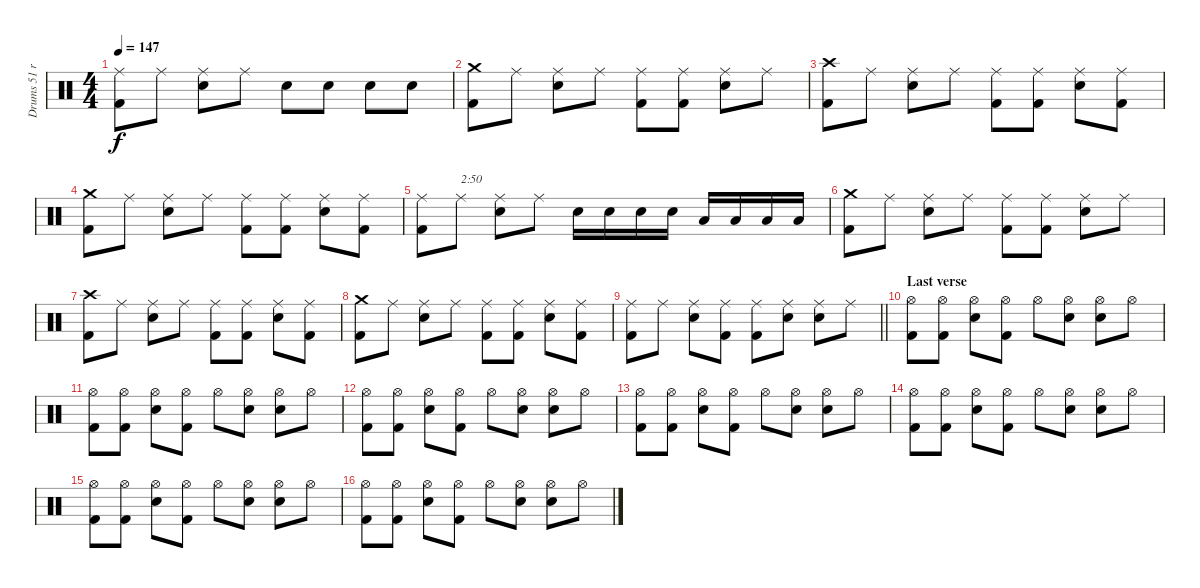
\track ("Drums 51 ride" "Drums 51 r") {mute instrument percussion}
\staff {score}
\articulation defaults
\ts (4 4)
\tempo 147
\clef neutral
\ks c
("Ride (middle)" "Kick (hit) 2").8{dy f} "Ride (middle)".8 ("Ride (middle)" "Snare (hit) 2").8 "Ride (middle)".8 "Snare (hit) 2".8 "Snare (hit) 2".8 "Snare (hit) 2".8 "Snare (hit) 2".8 |
("Crash medium (hit)" "Kick (hit) 2").8 "Ride (middle)".8 ("Ride (middle)" "Snare (hit) 2").8 "Ride (middle)".8 ("Ride (middle)" "Kick (hit) 2").8 ("Ride (middle)" "Kick (hit) 2").8 ("Ride (middle)" "Snare (hit) 2").8 "Ride (middle)".8 |
("Crash high (hit)" "Kick (hit) 2").8 "Ride (middle)".8 ("Ride (middle)" "Snare (hit) 2").8 "Ride (middle)".8 ("Ride (middle)" "Kick (hit) 2").8 ("Ride (middle)" "Kick (hit) 2").8 ("Ride (middle)" "Snare (hit) 2").8 ("Ride (middle)" "Kick (hit) 2").8 |
("Crash medium (hit)" "Kick (hit) 2").8 "Ride (middle)".8 ("Ride (middle)" "Snare (hit) 2").8 "Ride (middle)".8 ("Ride (middle)" "Kick (hit) 2").8 ("Ride (middle)" "Kick (hit) 2").8 ("Ride (middle)" "Snare (hit) 2").8 ("Ride (middle)" "Kick (hit) 2").8 |
("Ride (middle)" "Kick (hit) 2").8 "Ride (middle)".8{txt "2:50"} ("Ride (middle)" "Snare (hit) 2").8 "Ride (middle)".8 "Snare (hit) 2".16 "Snare (hit) 2".16 "Snare (hit) 2".16 "Snare (hit) 2".16 "Low Tom (hit)".16 "Low Tom (hit)".16 "Low Tom (hit)".16 "Low Tom (hit)".16 |
("Crash medium (hit)" "Kick (hit) 2").8 "Ride (middle)".8 ("Ride (middle)" "Snare (hit) 2").8 "Ride (middle)".8 ("Ride (middle)" "Kick (hit) 2").8 ("Ride (middle)" "Kick (hit) 2").8 ("Ride (middle)" "Snare (hit) 2").8 "Ride (middle)".8 |
("Crash high (hit)" "Kick (hit) 2").8 "Ride (middle)".8 ("Ride (middle)" "Snare (hit) 2").8 "Ride (middle)".8 ("Ride (middle)" "Kick (hit) 2").8 ("Ride (middle)" "Kick (hit) 2").8 ("Ride (middle)" "Snare (hit) 2").8 ("Ride (middle)" "Kick (hit) 2").8 |
("Crash medium (hit)" "Kick (hit) 2").8 "Ride (middle)".8 ("Ride (middle)" "Snare (hit) 2").8 "Ride (middle)".8 ("Ride (middle)" "Kick (hit) 2").8 ("Ride (middle)" "Kick (hit) 2").8 ("Ride (middle)" "Snare (hit) 2").8 ("Ride (middle)" "Kick (hit) 2").8 |
\barLineRight lightlight
("Ride (middle)" "Kick (hit) 2").8 "Ride (middle)".8 ("Ride (middle)" "Snare (hit) 2").8 ("Ride (middle)" "Kick (hit) 2").8 ("Ride (middle)" "Kick (hit) 2").8 ("Ride (middle)" "Snare (hit) 2").8 ("Ride (middle)" "Snare (hit) 2").8 "Ride (middle)".8 |
\section ("" "Last verse")
("Hi-Hat (open)" "Kick (hit) 2").8 ("Hi-Hat (open)" "Kick (hit) 2").8 ("Hi-Hat (open)" "Snare (hit) 2").8 ("Hi-Hat (open)" "Kick (hit) 2").8 "Hi-Hat (open)".8 ("Hi-Hat (open)" "Snare (hit) 2").8 ("Hi-Hat (open)" "Snare (hit) 2").8 "Hi-Hat (open)".8 |
("Hi-Hat (open)" "Kick (hit) 2").8 ("Hi-Hat (open)" "Kick (hit) 2").8 ("Hi-Hat (open)" "Snare (hit) 2").8 ("Hi-Hat (open)" "Kick (hit) 2").8 "Hi-Hat (open)".8 ("Hi-Hat (open)" "Snare (hit) 2").8 ("Hi-Hat (open)" "Snare (hit) 2").8 "Hi-Hat (open)".8 |
("Hi-Hat (open)" "Kick (hit) 2").8 ("Hi-Hat (open)" "Kick (hit) 2").8 ("Hi-Hat (open)" "Snare (hit) 2").8 ("Hi-Hat (open)" "Kick (hit) 2").8 "Hi-Hat (open)".8 ("Hi-Hat (open)" "Snare (hit) 2").8 ("Hi-Hat (open)" "Snare (hit) 2").8 "Hi-Hat (open)".8 |
("Hi-Hat (open)" "Kick (hit) 2").8 ("Hi-Hat (open)" "Kick (hit) 2").8 ("Hi-Hat (open)" "Snare (hit) 2").8 ("Hi-Hat (open)" "Kick (hit) 2").8 "Hi-Hat (open)".8 ("Hi-Hat (open)" "Snare (hit) 2").8 ("Hi-Hat (open)" "Snare (hit) 2").8 "Hi-Hat (open)".8 |
("Hi-Hat (open)" "Kick (hit) 2").8 ("Hi-Hat (open)" "Kick (hit) 2").8 ("Hi-Hat (open)" "Snare (hit) 2").8 ("Hi-Hat (open)" "Kick (hit) 2").8 "Hi-Hat (open)".8 ("Hi-Hat (open)" "Snare (hit) 2").8 ("Hi-Hat (open)" "Snare (hit) 2").8 "Hi-Hat (open)".8 |
("Hi-Hat (open)" "Kick (hit) 2").8 ("Hi-Hat (open)" "Kick (hit) 2").8 ("Hi-Hat (open)" "Snare (hit) 2").8 ("Hi-Hat (open)" "Kick (hit) 2").8 "Hi-Hat (open)".8 ("Hi-Hat (open)" "Snare (hit) 2").8 ("Hi-Hat (open)" "Snare (hit) 2").8 "Hi-Hat (open)".8 |
("Hi-Hat (open)" "Kick (hit) 2").8 ("Hi-Hat (open)" "Kick (hit) 2").8 ("Hi-Hat (open)" "Snare (hit) 2").8 ("Hi-Hat (open)" "Kick (hit) 2").8 "Hi-Hat (open)".8 ("Hi-Hat (open)" "Snare (hit) 2").8 ("Hi-Hat (open)" "Snare (hit) 2").8 "Hi-Hat (open)".8
